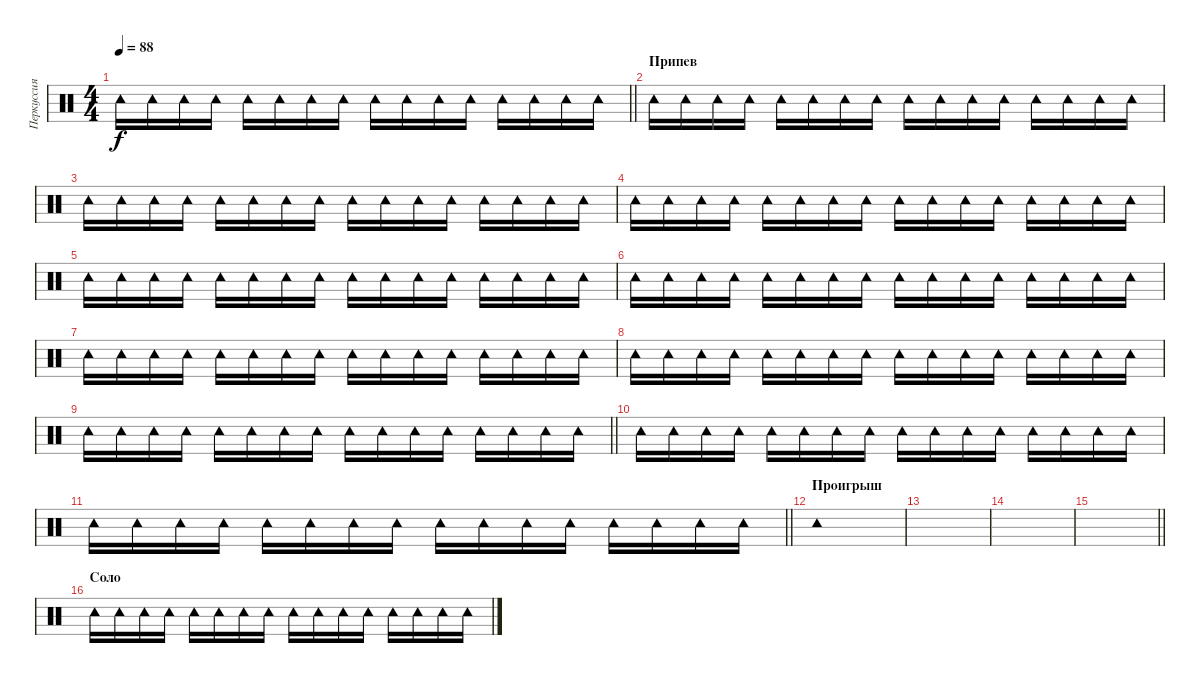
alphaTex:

\track ("Перкуссия 1" "Перкуссия ") {instrument percussion}
\staff {score}
\articulation defaults
\ts (4 4)
\tempo 88
\clef neutral
\barLineRight lightlight
\ks c "Tambourine (hit)".16{dy f} "Tambourine (hit)".16 "Tambourine (hit)".16 "Tambourine (hit)".16 "Tambourine (hit)".16 "Tambourine (hit)".16 "Tambourine (hit)".16 "Tambourine (hit)".16 "Tambourine (hit)".16 "Tambourine (hit)".16 "Tambourine (hit)".16 "Tambourine (hit)".16 "Tambourine (hit)".16 "Tambourine (hit)".16 "Tambourine (hit)".16 "Tambourine (hit)".16
|
\section ("" "Припев")
"Tambourine (hit)".16 "Tambourine (hit)".16 "Tambourine (hit)".16 "Tambourine (hit)".16 "Tambourine (hit)".16 "Tambourine (hit)".16 "Tambourine (hit)".16 "Tambourine (hit)".16 "Tambourine (hit)".16 "Tambourine (hit)".16 "Tambourine (hit)".16 "Tambourine (hit)".16 "Tambourine (hit)".16 "Tambourine (hit)".16 "Tambourine (hit)".16 "Tambourine (hit)".16 |
"Tambourine (hit)".16 "Tambourine (hit)".16 "Tambourine (hit)".16 "Tambourine (hit)".16 "Tambourine (hit)".16 "Tambourine (hit)".16 "Tambourine (hit)".16 "Tambourine (hit)".16 "Tambourine (hit)".16 "Tambourine (hit)".16 "Tambourine (hit)".16 "Tambourine (hit)".16 "Tambourine (hit)".16 "Tambourine (hit)".16 "Tambourine (hit)".16 "Tambourine (hit)".16 |
"Tambourine (hit)".16 "Tambourine (hit)".16 "Tambourine (hit)".16 "Tambourine (hit)".16 "Tambourine (hit)".16 "Tambourine (hit)".16 "Tambourine (hit)".16 "Tambourine (hit)".16 "Tambourine (hit)".16 "Tambourine (hit)".16 "Tambourine (hit)".16 "Tambourine (hit)".16 "Tambourine (hit)".16 "Tambourine (hit)".16 "Tambourine (hit)".16 "Tambourine (hit)".16 |
"Tambourine (hit)".16 "Tambourine (hit)".16 "Tambourine (hit)".16 "Tambourine (hit)".16 "Tambourine (hit)".16 "Tambourine (hit)".16 "Tambourine (hit)".16 "Tambourine (hit)".16 "Tambourine (hit)".16 "Tambourine (hit)".16 "Tambourine (hit)".16 "Tambourine (hit)".16 "Tambourine (hit)".16 "Tambourine (hit)".16 "Tambourine (hit)".16 "Tambourine (hit)".16 |
"Tambourine (hit)".16 "Tambourine (hit)".16 "Tambourine (hit)".16 "Tambourine (hit)".16 "Tambourine (hit)".16 "Tambourine (hit)".16 "Tambourine (hit)".16 "Tambourine (hit)".16 "Tambourine (hit)".16 "Tambourine (hit)".16 "Tambourine (hit)".16 "Tambourine (hit)".16 "Tambourine (hit)".16 "Tambourine (hit)".16 "Tambourine (hit)".16 "Tambourine (hit)".16 |
"Tambourine (hit)".16 "Tambourine (hit)".16 "Tambourine (hit)".16 "Tambourine (hit)".16 "Tambourine (hit)".16 "Tambourine (hit)".16 "Tambourine (hit)".16 "Tambourine (hit)".16 "Tambourine (hit)".16 "Tambourine (hit)".16 "Tambourine (hit)".16 "Tambourine (hit)".16 "Tambourine (hit)".16 "Tambourine (hit)".16 "Tambourine (hit)".16 "Tambourine (hit)".16 |
"Tambourine (hit)".16 "Tambourine (hit)".16 "Tambourine (hit)".16 "Tambourine (hit)".16 "Tambourine (hit)".16 "Tambourine (hit)".16 "Tambourine (hit)".16 "Tambourine (hit)".16 "Tambourine (hit)".16 "Tambourine (hit)".16 "Tambourine (hit)".16 "Tambourine (hit)".16 "Tambourine (hit)".16 "Tambourine (hit)".16 "Tambourine (hit)".16 "Tambourine (hit)".16 |
\barLineRight lightlight "Tambourine (hit)".16 "Tambourine (hit)".16 "Tambourine (hit)".16 "Tambourine (hit)".16 "Tambourine (hit)".16 "Tambourine (hit)".16 "Tambourine (hit)".16 "Tambourine (hit)".16 "Tambourine (hit)".16 "Tambourine (hit)".16 "Tambourine (hit)".16 "Tambourine (hit)".16 "Tambourine (hit)".16 "Tambourine (hit)".16 "Tambourine (hit)".16 "Tambourine (hit)".16
|
"Tambourine (hit)".16 "Tambourine (hit)".16 "Tambourine (hit)".16 "Tambourine (hit)".16 "Tambourine (hit)".16 "Tambourine (hit)".16 "Tambourine (hit)".16 "Tambourine (hit)".16 "Tambourine (hit)".16 "Tambourine (hit)".16 "Tambourine (hit)".16 "Tambourine (hit)".16 "Tambourine (hit)".16 "Tambourine (hit)".16 "Tambourine (hit)".16 "Tambourine (hit)".16 |
\barLineRight lightlight "Tambourine (hit)".16 "Tambourine (hit)".16 "Tambourine (hit)".16 "Tambourine (hit)".16 "Tambourine (hit)".16 "Tambourine (hit)".16 "Tambourine (hit)".16 "Tambourine (hit)".16 "Tambourine (hit)".16 "Tambourine (hit)".16 "Tambourine (hit)".16 "Tambourine (hit)".16 "Tambourine (hit)".16 "Tambourine (hit)".16 "Tambourine (hit)".16 "Tambourine (hit)".16
|
\section ("" "Проигрыш")
"Tambourine (hit)".1 |
|
|
\barLineRight lightlight
|
\section ("" "Соло")
"Tambourine (hit)".16 "Tambourine (hit)".16 "Tambourine (hit)".16 "Tambourine (hit)".16 "Tambourine (hit)".16 "Tambourine (hit)".16 "Tambourine (hit)".16 "Tambourine (hit)".16 "Tambourine (hit)".16 "Tambourine (hit)".16 "Tambourine (hit)".16 "Tambourine (hit)".16 "Tambourine (hit)".16 "Tambourine (hit)".16 "Tambourine (hit)".16 "Tambourine (hit)".16
